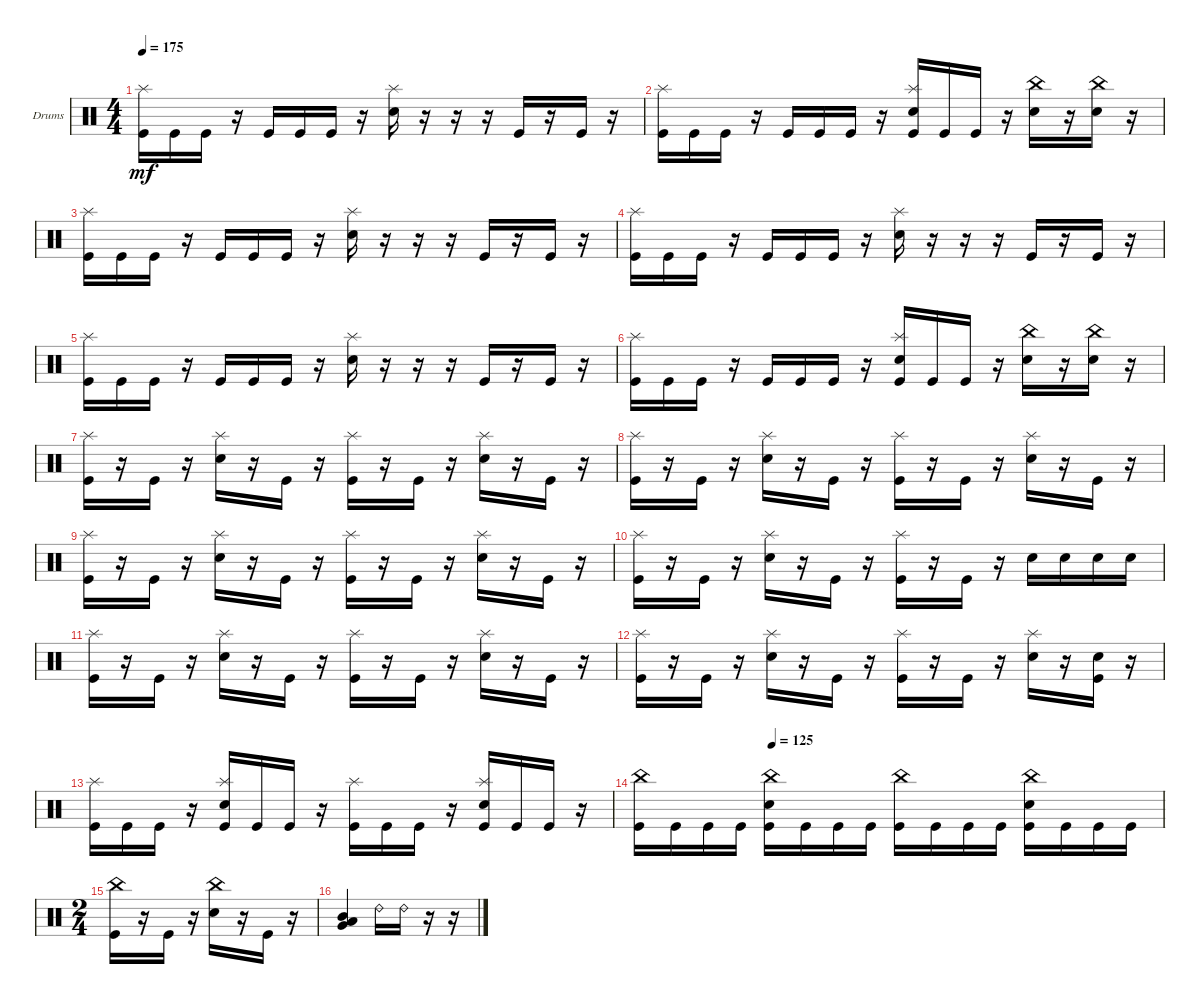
\bracketExtendMode groupsimilarinstruments
\firstSystemTrackNameOrientation horizontal
\otherSystemsTrackNameOrientation horizontal
\track ("Drumkit" "Drums") {solo instrument percussion}
\staff {score}
\articulation defaults
\ts (4 4)
\tempo 175
\clef neutral
\ks c
("Kick (hit)" "Splash (hit)").16{dy mf} "Kick (hit)".16 "Kick (hit)".16 r.16 "Kick (hit)".16 "Kick (hit)".16 "Kick (hit)".16 r.16 ("Splash (hit)" "Snare (hit) 2").16 r.16 r.16 r.16 "Kick (hit)".16 r.16 "Kick (hit)".16 r.16 |
("Kick (hit)" "Splash (hit)").16 "Kick (hit)".16 "Kick (hit)".16 r.16 "Kick (hit)".16 "Kick (hit)".16 "Kick (hit)".16 r.16 ("Splash (hit)" "Kick (hit)" "Snare (hit) 2").16 "Kick (hit)".16 "Kick (hit)".16 r.16 ("China (hit)" "Snare (hit) 2").16 r.16 ("China (hit)" "Snare (hit) 2").16 r.16 |
("Kick (hit)" "Splash (hit)").16 "Kick (hit)".16 "Kick (hit)".16 r.16 "Kick (hit)".16 "Kick (hit)".16 "Kick (hit)".16 r.16 ("Splash (hit)" "Snare (hit) 2").16 r.16 r.16 r.16 "Kick (hit)".16 r.16 "Kick (hit)".16 r.16 |
("Kick (hit)" "Splash (hit)").16 "Kick (hit)".16 "Kick (hit)".16 r.16 "Kick (hit)".16 "Kick (hit)".16 "Kick (hit)".16 r.16 ("Splash (hit)" "Snare (hit) 2").16 r.16 r.16 r.16 "Kick (hit)".16 r.16 "Kick (hit)".16 r.16 |
("Kick (hit)" "Splash (hit)").16 "Kick (hit)".16 "Kick (hit)".16 r.16 "Kick (hit)".16 "Kick (hit)".16 "Kick (hit)".16 r.16 ("Splash (hit)" "Snare (hit) 2").16 r.16 r.16 r.16 "Kick (hit)".16 r.16 "Kick (hit)".16 r.16 |
("Kick (hit)" "Splash (hit)").16 "Kick (hit)".16 "Kick (hit)".16 r.16 "Kick (hit)".16 "Kick (hit)".16 "Kick (hit)".16 r.16 ("Splash (hit)" "Kick (hit)" "Snare (hit) 2").16 "Kick (hit)".16 "Kick (hit)".16 r.16 ("China (hit)" "Snare (hit) 2").16 r.16 ("China (hit)" "Snare (hit) 2").16 r.16 |
("Splash (hit)" "Kick (hit)").16 r.16 "Kick (hit)".16 r.16 ("Splash (hit)" "Snare (hit) 2").16 r.16 "Kick (hit)".16 r.16 ("Splash (hit)" "Kick (hit)").16 r.16 "Kick (hit)".16 r.16 ("Splash (hit)" "Snare (hit) 2").16 r.16 "Kick (hit)".16 r.16 |
("Splash (hit)" "Kick (hit)").16 r.16 "Kick (hit)".16 r.16 ("Splash (hit)" "Snare (hit) 2").16 r.16 "Kick (hit)".16 r.16 ("Splash (hit)" "Kick (hit)").16 r.16 "Kick (hit)".16 r.16 ("Splash (hit)" "Snare (hit) 2").16 r.16 "Kick (hit)".16 r.16 |
("Splash (hit)" "Kick (hit)").16 r.16 "Kick (hit)".16 r.16 ("Splash (hit)" "Snare (hit) 2").16 r.16 "Kick (hit)".16 r.16 ("Splash (hit)" "Kick (hit)").16 r.16 "Kick (hit)".16 r.16 ("Splash (hit)" "Snare (hit) 2").16 r.16 "Kick (hit)".16 r.16 |
("Splash (hit)" "Kick (hit)").16 r.16 "Kick (hit)".16 r.16 ("Splash (hit)" "Snare (hit) 2").16 r.16 "Kick (hit)".16 r.16 ("Splash (hit)" "Kick (hit)").16 r.16 "Kick (hit)".16 r.16 "Snare (hit) 2".16 "Snare (hit) 2".16 "Snare (hit) 2".16 "Snare (hit) 2".16 |
("Splash (hit)" "Kick (hit)").16 r.16 "Kick (hit)".16 r.16 ("Splash (hit)" "Snare (hit) 2").16 r.16 "Kick (hit)".16 r.16 ("Splash (hit)" "Kick (hit)").16 r.16 "Kick (hit)".16 r.16 ("Splash (hit)" "Snare (hit) 2").16 r.16 "Kick (hit)".16 r.16 |
("Splash (hit)" "Kick (hit)").16 r.16 "Kick (hit)".16 r.16 ("Splash (hit)" "Snare (hit) 2").16 r.16 "Kick (hit)".16 r.16 ("Splash (hit)" "Kick (hit)").16 r.16 "Kick (hit)".16 r.16 ("Splash (hit)" "Snare (hit) 2").16 r.16 ("Kick (hit)" "Snare (hit) 2").16 r.16 |
("Kick (hit)" "Splash (hit)").16 "Kick (hit)".16 "Kick (hit)".16 r.16 ("Kick (hit)" "Snare (hit) 2" "Splash (hit)").16 "Kick (hit)".16 "Kick (hit)".16 r.16 ("Kick (hit)" "Splash (hit)").16 "Kick (hit)".16 "Kick (hit)".16 r.16 ("Kick (hit)" "Snare (hit) 2" "Splash (hit)").16 "Kick (hit)".16 "Kick (hit)".16 r.16 |
\tempo (125 0.25)
("Kick (hit)" "China (hit)").16 "Kick (hit)".16 "Kick (hit)".16 "Kick (hit)".16 ("Kick (hit)" "China (hit)" "Snare (hit) 2").16 "Kick (hit)".16 "Kick (hit)".16 "Kick (hit)".16 ("Kick (hit)" "China (hit)").16 "Kick (hit)".16 "Kick (hit)".16 "Kick (hit)".16 ("Kick (hit)" "China (hit)" "Snare (hit) 2").16 "Kick (hit)".16 "Kick (hit)".16 "Kick (hit)".16 |
\ts (2 4)
("Kick (hit)" "China (hit)").16 r.16 "Kick (hit)".16 r.16 ("China (hit)" "Snare (hit) 2").16 r.16 "Kick (hit)".16 r.16 |
("Very Low Tom (hit)" "Low Tom (hit)" "Mid Tom (hit)").4 "Ride (bell) 2".16 "Ride (bell) 2".16 r.16 r.16
